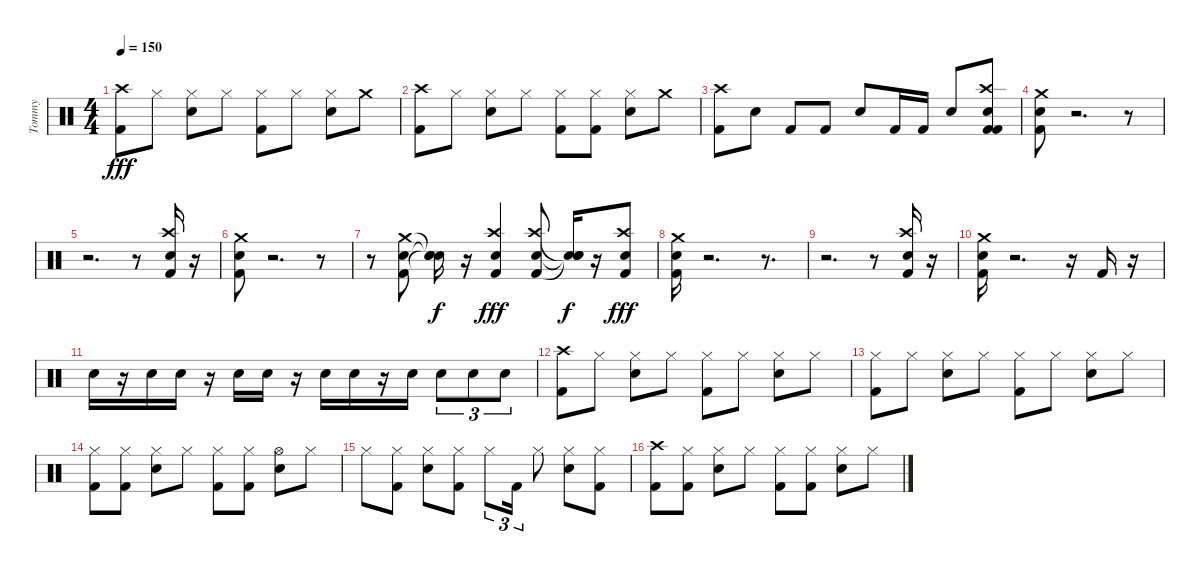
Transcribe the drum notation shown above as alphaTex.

\track ("Tommy" "Tommy") {instrument percussion}
\staff {score}
\articulation defaults
\ts (4 4)
\tempo 150
\clef neutral
\ks c
("Kick (hit) 2" "Crash high (hit)").8{dy fff} "Hi-Hat (closed)".8 ("Hi-Hat (closed)" "Snare (hit) 2").8 "Hi-Hat (closed)".8 ("Kick (hit) 2" "Hi-Hat (closed)").8 "Hi-Hat (closed)".8 ("Snare (hit) 2" "Hi-Hat (closed)").8 "Crash medium (hit)".8 |
("Kick (hit) 2" "Crash high (hit)").8 "Hi-Hat (closed)".8 ("Hi-Hat (closed)" "Snare (hit) 2").8 "Hi-Hat (closed)".8 ("Hi-Hat (closed)" "Kick (hit) 2").8 ("Hi-Hat (closed)" "Kick (hit) 2").8 ("Hi-Hat (closed)" "Snare (hit) 2").8 "Crash medium (hit)".8 |
("Crash high (hit)" "Kick (hit) 2").8 "Snare (hit) 2".8 "Kick (hit) 2".8 "Kick (hit) 2".8 "Snare (hit) 2".8 "Kick (hit) 2".16 "Kick (hit) 2".16 "Snare (hit) 2".8 ("Crash high (hit)" "Snare (hit) 2" "Kick (hit) 2" "Kick (hit) 2").8 |
("Kick (hit) 2" "Snare (hit) 2" "Crash medium (hit)").8 r.2{d} r.8 |
r.2{d} r.8 ("Kick (hit) 2" "Snare (hit) 2" "Crash high (hit)").16 r.16 |
("Kick (hit) 2" "Snare (hit) 2" "Crash medium (hit)").8 r.2{d} r.8 |
r.8 ("Kick (hit) 2" "Snare (hit) 2" "Crash medium (hit)").8 ("Snare (hit)"{t} "Snare (hit)"{t} "Snare (hit)"{t}).16{dy f} r.16 ("Kick (hit) 2" "Snare (hit) 2" "Crash high (hit)").4{dy fff} ("Kick (hit) 2" "Snare (hit) 2" "Crash high (hit)").8 ("Snare (hit)"{t} "Snare (hit)"{t} "Snare (hit)"{t}).16{dy f} r.16 ("Kick (hit) 2" "Snare (hit) 2" "Crash high (hit)").8{dy fff} |
("Kick (hit) 2" "Snare (hit) 2" "Crash medium (hit)").16 r.2{d} r.8{d} |
r.2{d} r.8 ("Kick (hit) 2" "Snare (hit) 2" "Crash high (hit)").16 r.16 |
("Kick (hit) 2" "Snare (hit) 2" "Crash medium (hit)").16 r.2{d} r.16 "Kick (hit) 2".16 r.16 |
"Snare (hit) 2".16 r.16 "Snare (hit) 2".16 "Snare (hit) 2".16 r.16 "Snare (hit) 2".16 "Snare (hit) 2".16 r.16 "Snare (hit) 2".16 "Snare (hit) 2".16 r.16 "Snare (hit) 2".16 "Snare (hit) 2".8{tu (3 2)} "Snare (hit) 2".8{tu (3 2)} "Snare (hit) 2".8{tu (3 2)} |
("Crash high (hit)" "Kick (hit) 2").8 "Hi-Hat (closed)".8 ("Snare (hit) 2" "Hi-Hat (closed)").8 "Hi-Hat (closed)".8 ("Kick (hit) 2" "Hi-Hat (closed)").8 "Hi-Hat (closed)".8 ("Snare (hit) 2" "Hi-Hat (closed)").8 "Hi-Hat (closed)".8 |
("Kick (hit) 2" "Hi-Hat (closed)").8 "Hi-Hat (closed)".8 ("Snare (hit) 2" "Hi-Hat (closed)").8 "Hi-Hat (closed)".8 ("Kick (hit) 2" "Hi-Hat (closed)").8 "Hi-Hat (closed)".8 ("Snare (hit) 2" "Hi-Hat (closed)").8 "Hi-Hat (closed)".8 |
("Kick (hit) 2" "Hi-Hat (closed)").8 ("Kick (hit) 2" "Hi-Hat (closed)").8 ("Snare (hit) 2" "Hi-Hat (closed)").8 "Hi-Hat (closed)".8 ("Kick (hit) 2" "Hi-Hat (closed)").8 ("Kick (hit) 2" "Hi-Hat (closed)").8 ("Snare (hit) 2" "Hi-Hat (open)").8 "Hi-Hat (closed)".8 |
"Hi-Hat (closed)".8 ("Kick (hit) 2" "Hi-Hat (closed)").8 ("Snare (hit) 2" "Hi-Hat (closed)").8 ("Hi-Hat (closed)" "Kick (hit) 2").8 "Hi-Hat (closed)".8{tu (3 2)} "Kick (hit) 2".16{tu (3 2)} "Hi-Hat (closed)".8 ("Snare (hit) 2" "Hi-Hat (closed)").8 ("Hi-Hat (closed)" "Kick (hit) 2").8 |
("Kick (hit) 2" "Crash high (hit)").8 ("Kick (hit) 2" "Hi-Hat (closed)").8 ("Snare (hit) 2" "Hi-Hat (closed)").8 "Hi-Hat (closed)".8 ("Kick (hit) 2" "Hi-Hat (closed)").8 ("Kick (hit) 2" "Hi-Hat (closed)").8 ("Snare (hit) 2" "Hi-Hat (closed)").8 "Hi-Hat (closed)".8
